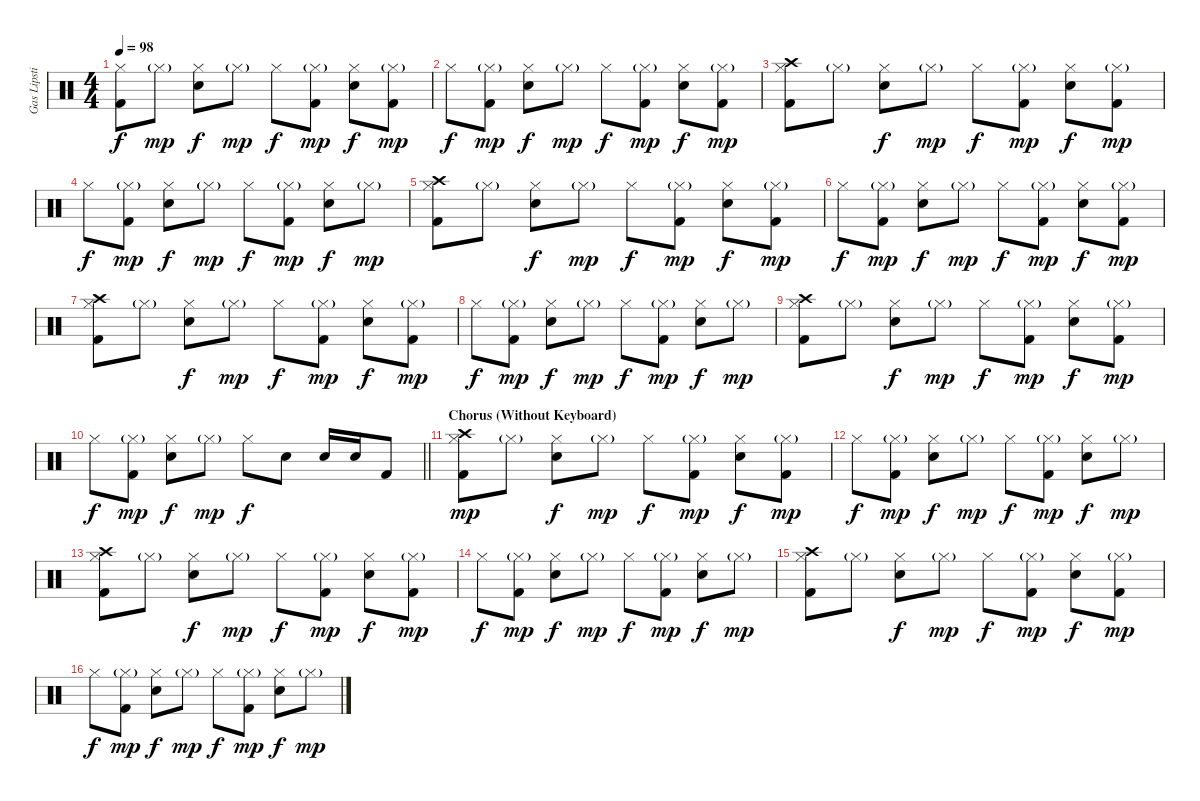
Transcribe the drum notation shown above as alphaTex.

\track ("Gas Lipstick (Drums)" "Gas Lipsti") {instrument percussion}
\staff {score}
\articulation defaults
\ts (4 4)
\tempo 98
\clef neutral
\ks c
("Hi-Hat (closed)" "Kick (hit) 2").8{dy f} "Hi-Hat (closed)"{g}.8{dy mp} ("Hi-Hat (closed)" "Snare (hit) 2").8{dy f} "Hi-Hat (closed)"{g}.8{dy mp} "Hi-Hat (closed)".8{dy f} ("Hi-Hat (closed)"{g} "Kick (hit) 2").8{dy mp} ("Hi-Hat (closed)" "Snare (hit) 2").8{dy f} ("Hi-Hat (closed)"{g} "Kick (hit) 2").8{dy mp} |
"Hi-Hat (closed)".8{dy f} ("Hi-Hat (closed)"{g} "Kick (hit) 2").8{dy mp} ("Hi-Hat (closed)" "Snare (hit) 2").8{dy f} "Hi-Hat (closed)"{g}.8{dy mp} "Hi-Hat (closed)".8{dy f} ("Hi-Hat (closed)"{g} "Kick (hit) 2").8{dy mp} ("Hi-Hat (closed)" "Snare (hit) 2").8{dy f} ("Hi-Hat (closed)"{g} "Kick (hit) 2").8{dy mp} |
("Crash high (hit)" "Hi-Hat (closed)" "Kick (hit) 2").8 "Hi-Hat (closed)"{g}.8 ("Hi-Hat (closed)" "Snare (hit) 2").8{dy f} "Hi-Hat (closed)"{g}.8{dy mp} "Hi-Hat (closed)".8{dy f} ("Hi-Hat (closed)"{g} "Kick (hit) 2").8{dy mp} ("Hi-Hat (closed)" "Snare (hit) 2").8{dy f} ("Hi-Hat (closed)"{g} "Kick (hit) 2").8{dy mp} |
"Hi-Hat (closed)".8{dy f} ("Hi-Hat (closed)"{g} "Kick (hit) 2").8{dy mp} ("Hi-Hat (closed)" "Snare (hit) 2").8{dy f} "Hi-Hat (closed)"{g}.8{dy mp} "Hi-Hat (closed)".8{dy f} ("Hi-Hat (closed)"{g} "Kick (hit) 2").8{dy mp} ("Hi-Hat (closed)" "Snare (hit) 2").8{dy f} "Hi-Hat (closed)"{g}.8{dy mp} |
("Crash high (hit)" "Hi-Hat (closed)" "Kick (hit) 2").8 "Hi-Hat (closed)"{g}.8 ("Hi-Hat (closed)" "Snare (hit) 2").8{dy f} "Hi-Hat (closed)"{g}.8{dy mp} "Hi-Hat (closed)".8{dy f} ("Hi-Hat (closed)"{g} "Kick (hit) 2").8{dy mp} ("Hi-Hat (closed)" "Snare (hit) 2").8{dy f} ("Hi-Hat (closed)"{g} "Kick (hit) 2").8{dy mp} |
"Hi-Hat (closed)".8{dy f} ("Hi-Hat (closed)"{g} "Kick (hit) 2").8{dy mp} ("Hi-Hat (closed)" "Snare (hit) 2").8{dy f} "Hi-Hat (closed)"{g}.8{dy mp} "Hi-Hat (closed)".8{dy f} ("Hi-Hat (closed)"{g} "Kick (hit) 2").8{dy mp} ("Hi-Hat (closed)" "Snare (hit) 2").8{dy f} ("Hi-Hat (closed)"{g} "Kick (hit) 2").8{dy mp} |
("Crash high (hit)" "Hi-Hat (closed)" "Kick (hit) 2").8 "Hi-Hat (closed)"{g}.8 ("Hi-Hat (closed)" "Snare (hit) 2").8{dy f} "Hi-Hat (closed)"{g}.8{dy mp} "Hi-Hat (closed)".8{dy f} ("Hi-Hat (closed)"{g} "Kick (hit) 2").8{dy mp} ("Hi-Hat (closed)" "Snare (hit) 2").8{dy f} ("Hi-Hat (closed)"{g} "Kick (hit) 2").8{dy mp} |
"Hi-Hat (closed)".8{dy f} ("Hi-Hat (closed)"{g} "Kick (hit) 2").8{dy mp} ("Hi-Hat (closed)" "Snare (hit) 2").8{dy f} "Hi-Hat (closed)"{g}.8{dy mp} "Hi-Hat (closed)".8{dy f} ("Hi-Hat (closed)"{g} "Kick (hit) 2").8{dy mp} ("Hi-Hat (closed)" "Snare (hit) 2").8{dy f} "Hi-Hat (closed)"{g}.8{dy mp} |
("Crash high (hit)" "Hi-Hat (closed)" "Kick (hit) 2").8 "Hi-Hat (closed)"{g}.8 ("Hi-Hat (closed)" "Snare (hit) 2").8{dy f} "Hi-Hat (closed)"{g}.8{dy mp} "Hi-Hat (closed)".8{dy f} ("Hi-Hat (closed)"{g} "Kick (hit) 2").8{dy mp} ("Hi-Hat (closed)" "Snare (hit) 2").8{dy f} ("Hi-Hat (closed)"{g} "Kick (hit) 2").8{dy mp} |
\barLineRight lightlight "Hi-Hat (closed)".8{dy f}
("Hi-Hat (closed)"{g} "Kick (hit) 2").8{dy mp} ("Hi-Hat (closed)" "Snare (hit) 2").8{dy f} "Hi-Hat (closed)"{g}.8{dy mp} "Hi-Hat (closed)".8{dy f} "Snare (hit) 2".8 "Snare (hit) 2".16 "Snare (hit) 2".16 "Kick (hit) 2".8 |
\section ("" "Chorus (Without Keyboard)")
("Crash high (hit)" "Hi-Hat (closed)" "Kick (hit) 2").8{dy mp} "Hi-Hat (closed)"{g}.8 ("Hi-Hat (closed)" "Snare (hit) 2").8{dy f} "Hi-Hat (closed)"{g}.8{dy mp} "Hi-Hat (closed)".8{dy f} ("Hi-Hat (closed)"{g} "Kick (hit) 2").8{dy mp} ("Hi-Hat (closed)" "Snare (hit) 2").8{dy f} ("Hi-Hat (closed)"{g} "Kick (hit) 2").8{dy mp} |
"Hi-Hat (closed)".8{dy f} ("Hi-Hat (closed)"{g} "Kick (hit) 2").8{dy mp} ("Hi-Hat (closed)" "Snare (hit) 2").8{dy f} "Hi-Hat (closed)"{g}.8{dy mp} "Hi-Hat (closed)".8{dy f} ("Hi-Hat (closed)"{g} "Kick (hit) 2").8{dy mp} ("Hi-Hat (closed)" "Snare (hit) 2").8{dy f} "Hi-Hat (closed)"{g}.8{dy mp} |
("Crash high (hit)" "Hi-Hat (closed)" "Kick (hit) 2").8 "Hi-Hat (closed)"{g}.8 ("Hi-Hat (closed)" "Snare (hit) 2").8{dy f} "Hi-Hat (closed)"{g}.8{dy mp} "Hi-Hat (closed)".8{dy f} ("Hi-Hat (closed)"{g} "Kick (hit) 2").8{dy mp} ("Hi-Hat (closed)" "Snare (hit) 2").8{dy f} ("Hi-Hat (closed)"{g} "Kick (hit) 2").8{dy mp} |
"Hi-Hat (closed)".8{dy f} ("Hi-Hat (closed)"{g} "Kick (hit) 2").8{dy mp} ("Hi-Hat (closed)" "Snare (hit) 2").8{dy f} "Hi-Hat (closed)"{g}.8{dy mp} "Hi-Hat (closed)".8{dy f} ("Hi-Hat (closed)"{g} "Kick (hit) 2").8{dy mp} ("Hi-Hat (closed)" "Snare (hit) 2").8{dy f} "Hi-Hat (closed)"{g}.8{dy mp} |
("Crash high (hit)" "Hi-Hat (closed)" "Kick (hit) 2").8 "Hi-Hat (closed)"{g}.8 ("Hi-Hat (closed)" "Snare (hit) 2").8{dy f} "Hi-Hat (closed)"{g}.8{dy mp} "Hi-Hat (closed)".8{dy f} ("Hi-Hat (closed)"{g} "Kick (hit) 2").8{dy mp} ("Hi-Hat (closed)" "Snare (hit) 2").8{dy f} ("Hi-Hat (closed)"{g} "Kick (hit) 2").8{dy mp} |
"Hi-Hat (closed)".8{dy f} ("Hi-Hat (closed)"{g} "Kick (hit) 2").8{dy mp} ("Hi-Hat (closed)" "Snare (hit) 2").8{dy f} "Hi-Hat (closed)"{g}.8{dy mp} "Hi-Hat (closed)".8{dy f} ("Hi-Hat (closed)"{g} "Kick (hit) 2").8{dy mp} ("Hi-Hat (closed)" "Snare (hit) 2").8{dy f} "Hi-Hat (closed)"{g}.8{dy mp}
